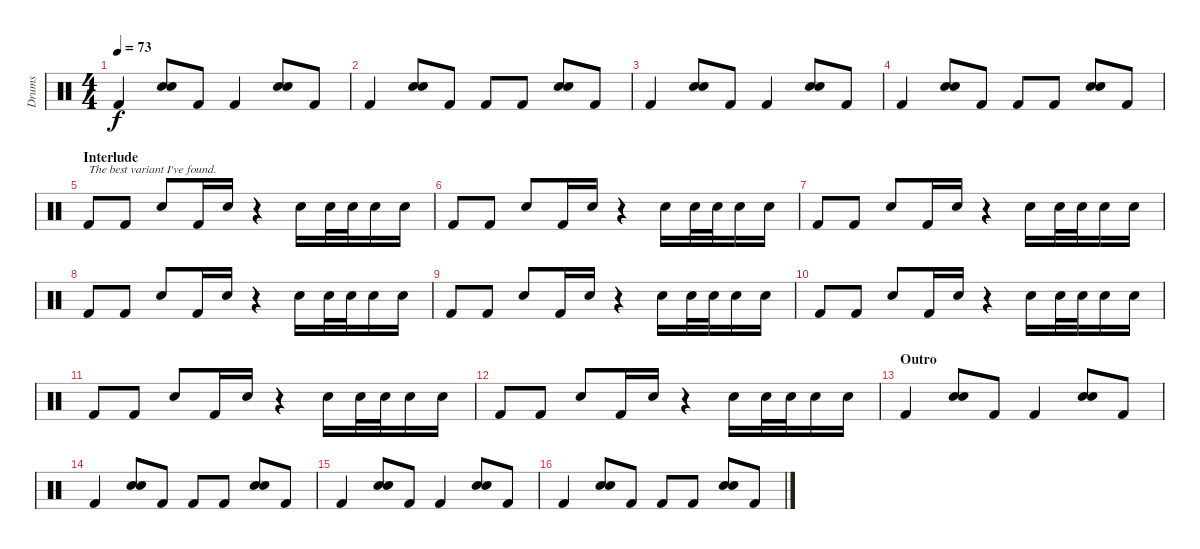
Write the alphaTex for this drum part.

\track ("Drums" "Drums") {instrument percussion}
\staff {score}
\articulation defaults
\ts (4 4)
\tempo 73
\clef neutral
\ks c "Kick (hit) 2".4{dy f}
("Electric Snare (hit)" "Snare (hit) 2").8 "Kick (hit) 2".8 "Kick (hit) 2".4 ("Electric Snare (hit)" "Snare (hit) 2").8 "Kick (hit) 2".8 |
"Kick (hit) 2".4 ("Electric Snare (hit)" "Snare (hit) 2").8 "Kick (hit) 2".8 "Kick (hit) 2".8 "Kick (hit) 2".8 ("Electric Snare (hit)" "Snare (hit) 2").8 "Kick (hit) 2".8 |
"Kick (hit) 2".4 ("Electric Snare (hit)" "Snare (hit) 2").8 "Kick (hit) 2".8 "Kick (hit) 2".4 ("Electric Snare (hit)" "Snare (hit) 2").8 "Kick (hit) 2".8 |
"Kick (hit) 2".4 ("Electric Snare (hit)" "Snare (hit) 2").8 "Kick (hit) 2".8 "Kick (hit) 2".8 "Kick (hit) 2".8 ("Electric Snare (hit)" "Snare (hit) 2").8 "Kick (hit) 2".8 |
\section ("" "Interlude")
"Kick (hit) 2".8{txt "The best variant I've found."} "Kick (hit) 2".8 "Hand Clap (hit)".8 "Kick (hit) 2".16 "Hand Clap (hit)".16 r.4 "Hand Clap (hit)".16 "Hand Clap (hit)".32 "Hand Clap (hit)".32 "Hand Clap (hit)".16 "Hand Clap (hit)".16 |
"Kick (hit) 2".8 "Kick (hit) 2".8 "Hand Clap (hit)".8 "Kick (hit) 2".16 "Hand Clap (hit)".16 r.4 "Hand Clap (hit)".16 "Hand Clap (hit)".32 "Hand Clap (hit)".32 "Hand Clap (hit)".16 "Hand Clap (hit)".16 |
"Kick (hit) 2".8 "Kick (hit) 2".8 "Hand Clap (hit)".8 "Kick (hit) 2".16 "Hand Clap (hit)".16 r.4 "Hand Clap (hit)".16 "Hand Clap (hit)".32 "Hand Clap (hit)".32 "Hand Clap (hit)".16 "Hand Clap (hit)".16 |
"Kick (hit) 2".8 "Kick (hit) 2".8 "Hand Clap (hit)".8 "Kick (hit) 2".16 "Hand Clap (hit)".16 r.4 "Hand Clap (hit)".16 "Hand Clap (hit)".32 "Hand Clap (hit)".32 "Hand Clap (hit)".16 "Hand Clap (hit)".16 |
"Kick (hit) 2".8 "Kick (hit) 2".8 "Hand Clap (hit)".8 "Kick (hit) 2".16 "Hand Clap (hit)".16 r.4 "Hand Clap (hit)".16 "Hand Clap (hit)".32 "Hand Clap (hit)".32 "Hand Clap (hit)".16 "Hand Clap (hit)".16 |
"Kick (hit) 2".8 "Kick (hit) 2".8 "Hand Clap (hit)".8 "Kick (hit) 2".16 "Hand Clap (hit)".16 r.4 "Hand Clap (hit)".16 "Hand Clap (hit)".32 "Hand Clap (hit)".32 "Hand Clap (hit)".16 "Hand Clap (hit)".16 |
"Kick (hit) 2".8 "Kick (hit) 2".8 "Hand Clap (hit)".8 "Kick (hit) 2".16 "Hand Clap (hit)".16 r.4 "Hand Clap (hit)".16 "Hand Clap (hit)".32 "Hand Clap (hit)".32 "Hand Clap (hit)".16 "Hand Clap (hit)".16 |
"Kick (hit) 2".8 "Kick (hit) 2".8 "Hand Clap (hit)".8 "Kick (hit) 2".16 "Hand Clap (hit)".16 r.4 "Hand Clap (hit)".16 "Hand Clap (hit)".32 "Hand Clap (hit)".32 "Hand Clap (hit)".16 "Hand Clap (hit)".16 |
\section ("" "Outro")
"Kick (hit) 2".4 ("Electric Snare (hit)" "Snare (hit) 2").8 "Kick (hit) 2".8 "Kick (hit) 2".4 ("Electric Snare (hit)" "Snare (hit) 2").8 "Kick (hit) 2".8 |
"Kick (hit) 2".4 ("Electric Snare (hit)" "Snare (hit) 2").8 "Kick (hit) 2".8 "Kick (hit) 2".8 "Kick (hit) 2".8 ("Electric Snare (hit)" "Snare (hit) 2").8 "Kick (hit) 2".8 |
"Kick (hit) 2".4 ("Electric Snare (hit)" "Snare (hit) 2").8 "Kick (hit) 2".8 "Kick (hit) 2".4 ("Electric Snare (hit)" "Snare (hit) 2").8 "Kick (hit) 2".8 |
"Kick (hit) 2".4 ("Electric Snare (hit)" "Snare (hit) 2").8 "Kick (hit) 2".8 "Kick (hit) 2".8 "Kick (hit) 2".8 ("Electric Snare (hit)" "Snare (hit) 2").8 "Kick (hit) 2".8
